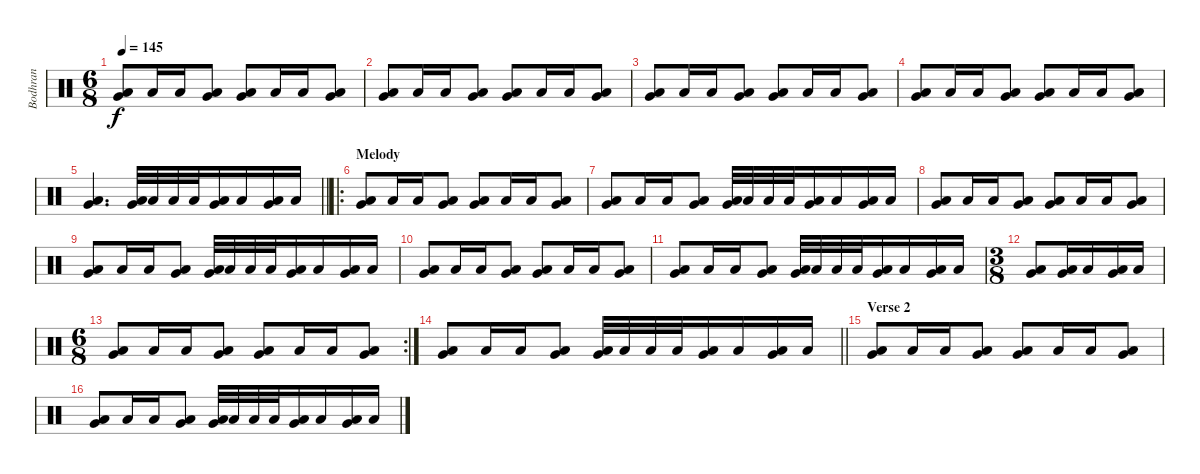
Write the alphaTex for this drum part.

\track ("Bodhran" "Bodhran") {instrument percussion}
\staff {score}
\articulation defaults
\ts (6 8)
\tempo 145
\clef neutral
\ks c
("Very Low Tom (hit)" "Low Floor Tom (hit)").8{dy f} "Low Floor Tom (hit)".16 "Low Floor Tom (hit)".16 ("Very Low Tom (hit)" "Low Floor Tom (hit)").8 ("Very Low Tom (hit)" "Low Floor Tom (hit)").8 "Low Floor Tom (hit)".16 "Low Floor Tom (hit)".16 ("Very Low Tom (hit)" "Low Floor Tom (hit)").8 |
("Very Low Tom (hit)" "Low Floor Tom (hit)").8 "Low Floor Tom (hit)".16 "Low Floor Tom (hit)".16 ("Very Low Tom (hit)" "Low Floor Tom (hit)").8 ("Very Low Tom (hit)" "Low Floor Tom (hit)").8 "Low Floor Tom (hit)".16 "Low Floor Tom (hit)".16 ("Very Low Tom (hit)" "Low Floor Tom (hit)").8 |
("Very Low Tom (hit)" "Low Floor Tom (hit)").8 "Low Floor Tom (hit)".16 "Low Floor Tom (hit)".16 ("Very Low Tom (hit)" "Low Floor Tom (hit)").8 ("Very Low Tom (hit)" "Low Floor Tom (hit)").8 "Low Floor Tom (hit)".16 "Low Floor Tom (hit)".16 ("Very Low Tom (hit)" "Low Floor Tom (hit)").8 |
("Very Low Tom (hit)" "Low Floor Tom (hit)").8 "Low Floor Tom (hit)".16 "Low Floor Tom (hit)".16 ("Very Low Tom (hit)" "Low Floor Tom (hit)").8 ("Very Low Tom (hit)" "Low Floor Tom (hit)").8 "Low Floor Tom (hit)".16 "Low Floor Tom (hit)".16 ("Very Low Tom (hit)" "Low Floor Tom (hit)").8 |
\barLineRight lightlight
("Very Low Tom (hit)" "Low Floor Tom (hit)").4{d} ("Very Low Tom (hit)" "Low Floor Tom (hit)").32 "Low Floor Tom (hit)".32 "Low Floor Tom (hit)".32 "Low Floor Tom (hit)".32 ("Very Low Tom (hit)" "Low Floor Tom (hit)").16 "Low Floor Tom (hit)".16 ("Very Low Tom (hit)" "Low Floor Tom (hit)").16 "Low Floor Tom (hit)".16 |
\ro
\section ("" "Melody")
("Very Low Tom (hit)" "Low Floor Tom (hit)").8 "Low Floor Tom (hit)".16 "Low Floor Tom (hit)".16 ("Very Low Tom (hit)" "Low Floor Tom (hit)").8 ("Very Low Tom (hit)" "Low Floor Tom (hit)").8 "Low Floor Tom (hit)".16 "Low Floor Tom (hit)".16 ("Very Low Tom (hit)" "Low Floor Tom (hit)").8 |
("Very Low Tom (hit)" "Low Floor Tom (hit)").8 "Low Floor Tom (hit)".16 "Low Floor Tom (hit)".16 ("Very Low Tom (hit)" "Low Floor Tom (hit)").8 ("Very Low Tom (hit)" "Low Floor Tom (hit)").32 "Low Floor Tom (hit)".32 "Low Floor Tom (hit)".32 "Low Floor Tom (hit)".32 ("Very Low Tom (hit)" "Low Floor Tom (hit)").16 "Low Floor Tom (hit)".16 ("Very Low Tom (hit)" "Low Floor Tom (hit)").16 "Low Floor Tom (hit)".16 |
("Very Low Tom (hit)" "Low Floor Tom (hit)").8 "Low Floor Tom (hit)".16 "Low Floor Tom (hit)".16 ("Very Low Tom (hit)" "Low Floor Tom (hit)").8 ("Very Low Tom (hit)" "Low Floor Tom (hit)").8 "Low Floor Tom (hit)".16 "Low Floor Tom (hit)".16 ("Very Low Tom (hit)" "Low Floor Tom (hit)").8 |
("Very Low Tom (hit)" "Low Floor Tom (hit)").8 "Low Floor Tom (hit)".16 "Low Floor Tom (hit)".16 ("Very Low Tom (hit)" "Low Floor Tom (hit)").8 ("Very Low Tom (hit)" "Low Floor Tom (hit)").32 "Low Floor Tom (hit)".32 "Low Floor Tom (hit)".32 "Low Floor Tom (hit)".32 ("Very Low Tom (hit)" "Low Floor Tom (hit)").16 "Low Floor Tom (hit)".16 ("Very Low Tom (hit)" "Low Floor Tom (hit)").16 "Low Floor Tom (hit)".16 |
("Very Low Tom (hit)" "Low Floor Tom (hit)").8 "Low Floor Tom (hit)".16 "Low Floor Tom (hit)".16 ("Very Low Tom (hit)" "Low Floor Tom (hit)").8 ("Very Low Tom (hit)" "Low Floor Tom (hit)").8 "Low Floor Tom (hit)".16 "Low Floor Tom (hit)".16 ("Very Low Tom (hit)" "Low Floor Tom (hit)").8 |
("Very Low Tom (hit)" "Low Floor Tom (hit)").8 "Low Floor Tom (hit)".16 "Low Floor Tom (hit)".16 ("Very Low Tom (hit)" "Low Floor Tom (hit)").8 ("Very Low Tom (hit)" "Low Floor Tom (hit)").32 "Low Floor Tom (hit)".32 "Low Floor Tom (hit)".32 "Low Floor Tom (hit)".32 ("Very Low Tom (hit)" "Low Floor Tom (hit)").16 "Low Floor Tom (hit)".16 ("Very Low Tom (hit)" "Low Floor Tom (hit)").16 "Low Floor Tom (hit)".16 |
\ts (3 8)
("Very Low Tom (hit)" "Low Floor Tom (hit)").8 ("Very Low Tom (hit)" "Low Floor Tom (hit)").16 "Low Floor Tom (hit)".16 ("Very Low Tom (hit)" "Low Floor Tom (hit)").16 "Low Floor Tom (hit)".16 |
\rc 2
\ts (6 8)
("Very Low Tom (hit)" "Low Floor Tom (hit)").8 "Low Floor Tom (hit)".16 "Low Floor Tom (hit)".16 ("Very Low Tom (hit)" "Low Floor Tom (hit)").8 ("Very Low Tom (hit)" "Low Floor Tom (hit)").8 "Low Floor Tom (hit)".16 "Low Floor Tom (hit)".16 ("Very Low Tom (hit)" "Low Floor Tom (hit)").8 |
\barLineRight lightlight
("Very Low Tom (hit)" "Low Floor Tom (hit)").8 "Low Floor Tom (hit)".16 "Low Floor Tom (hit)".16 ("Very Low Tom (hit)" "Low Floor Tom (hit)").8 ("Very Low Tom (hit)" "Low Floor Tom (hit)").32 "Low Floor Tom (hit)".32 "Low Floor Tom (hit)".32 "Low Floor Tom (hit)".32 ("Very Low Tom (hit)" "Low Floor Tom (hit)").16 "Low Floor Tom (hit)".16 ("Very Low Tom (hit)" "Low Floor Tom (hit)").16 "Low Floor Tom (hit)".16 |
\section ("" "Verse 2")
("Very Low Tom (hit)" "Low Floor Tom (hit)").8 "Low Floor Tom (hit)".16 "Low Floor Tom (hit)".16 ("Very Low Tom (hit)" "Low Floor Tom (hit)").8 ("Very Low Tom (hit)" "Low Floor Tom (hit)").8 "Low Floor Tom (hit)".16 "Low Floor Tom (hit)".16 ("Very Low Tom (hit)" "Low Floor Tom (hit)").8 |
("Very Low Tom (hit)" "Low Floor Tom (hit)").8 "Low Floor Tom (hit)".16 "Low Floor Tom (hit)".16 ("Very Low Tom (hit)" "Low Floor Tom (hit)").8 ("Very Low Tom (hit)" "Low Floor Tom (hit)").32 "Low Floor Tom (hit)".32 "Low Floor Tom (hit)".32 "Low Floor Tom (hit)".32 ("Very Low Tom (hit)" "Low Floor Tom (hit)").16 "Low Floor Tom (hit)".16 ("Very Low Tom (hit)" "Low Floor Tom (hit)").16 "Low Floor Tom (hit)".16
